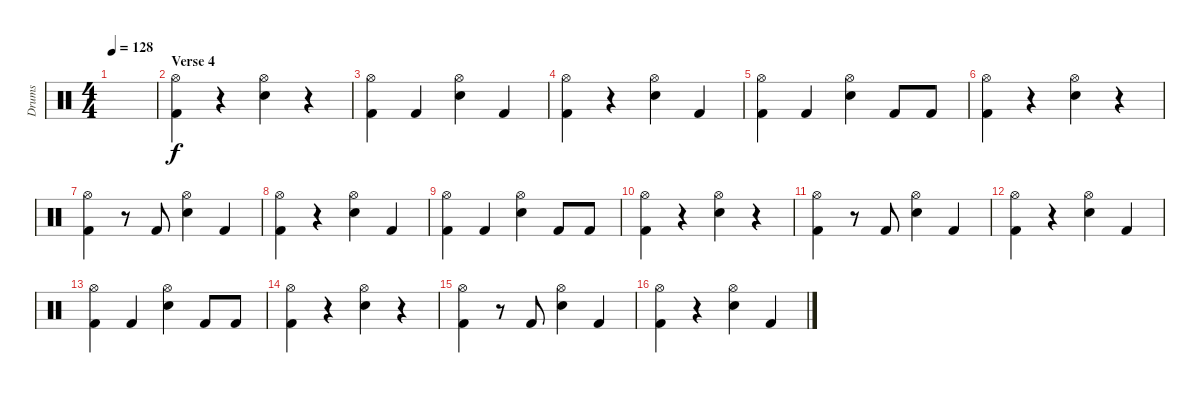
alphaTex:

\track ("Drums" "Drums") {instrument percussion}
\staff {score}
\articulation defaults
\ts (4 4)
\tempo 128
\clef neutral
\ks c
|
\section ("" "Verse 4")
("Hi-Hat (open)" "Kick (hit) 2").4 r.4 ("Hi-Hat (open)" "Snare (hit) 2").4 r.4 |
("Hi-Hat (open)" "Kick (hit) 2").4 "Kick (hit) 2".4 ("Hi-Hat (open)" "Snare (hit) 2").4 "Kick (hit) 2".4 |
("Hi-Hat (open)" "Kick (hit) 2").4 r.4 ("Hi-Hat (open)" "Snare (hit) 2").4 "Kick (hit) 2".4 |
("Hi-Hat (open)" "Kick (hit) 2").4 "Kick (hit) 2".4 ("Hi-Hat (open)" "Snare (hit) 2").4 "Kick (hit) 2".8 "Kick (hit) 2".8 |
("Hi-Hat (open)" "Kick (hit) 2").4 r.4 ("Hi-Hat (open)" "Snare (hit) 2").4 r.4 |
("Hi-Hat (open)" "Kick (hit) 2").4 r.8 "Kick (hit) 2".8 ("Hi-Hat (open)" "Snare (hit) 2").4 "Kick (hit) 2".4 |
("Hi-Hat (open)" "Kick (hit) 2").4 r.4 ("Hi-Hat (open)" "Snare (hit) 2").4 "Kick (hit) 2".4 |
("Hi-Hat (open)" "Kick (hit) 2").4 "Kick (hit) 2".4 ("Hi-Hat (open)" "Snare (hit) 2").4 "Kick (hit) 2".8 "Kick (hit) 2".8 |
("Hi-Hat (open)" "Kick (hit) 2").4 r.4 ("Hi-Hat (open)" "Snare (hit) 2").4 r.4 |
("Hi-Hat (open)" "Kick (hit) 2").4 r.8 "Kick (hit) 2".8 ("Hi-Hat (open)" "Snare (hit) 2").4 "Kick (hit) 2".4 |
("Hi-Hat (open)" "Kick (hit) 2").4 r.4 ("Hi-Hat (open)" "Snare (hit) 2").4 "Kick (hit) 2".4 |
("Hi-Hat (open)" "Kick (hit) 2").4 "Kick (hit) 2".4 ("Hi-Hat (open)" "Snare (hit) 2").4 "Kick (hit) 2".8 "Kick (hit) 2".8 |
("Hi-Hat (open)" "Kick (hit) 2").4 r.4 ("Hi-Hat (open)" "Snare (hit) 2").4 r.4 |
("Hi-Hat (open)" "Kick (hit) 2").4 r.8 "Kick (hit) 2".8 ("Hi-Hat (open)" "Snare (hit) 2").4 "Kick (hit) 2".4 |
("Hi-Hat (open)" "Kick (hit) 2").4 r.4 ("Hi-Hat (open)" "Snare (hit) 2").4 "Kick (hit) 2".4
